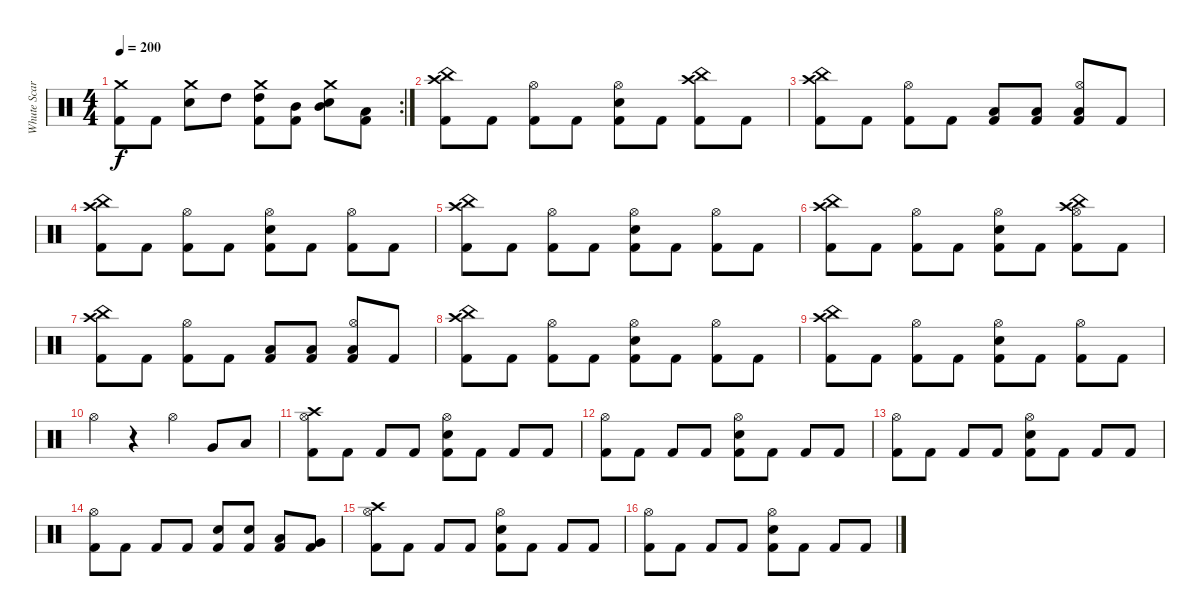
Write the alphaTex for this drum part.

\track ("Whute Scar" "Whute Scar") {instrument percussion}
\staff {score}
\articulation defaults
\rc 2
\ts (4 4)
\tempo 200
\clef neutral
\ks c
("Crash medium (hit)" "Kick (hit) 2").8{dy f} "Kick (hit) 2".8 ("Crash medium (hit)" "Snare (hit) 2").8 "High Tom (hit)".8 ("Crash medium (hit)" "High Tom (hit)" "Kick (hit) 2").8 ("Mid Tom (hit)" "Kick (hit) 2").8 ("Crash medium (hit)" "Mid Tom (hit)" "Snare (hit) 2").8 ("Low Tom (hit)" "Kick (hit) 2").8 |
("Kick (hit) 2" "Crash high (hit)" "China (hit)").8 "Kick (hit) 2".8 ("Kick (hit) 2" "Hi-Hat (open)").8 "Kick (hit) 2".8 ("Kick (hit) 2" "Snare (hit) 2" "Hi-Hat (open)").8 "Kick (hit) 2".8 ("Kick (hit) 2" "Crash high (hit)" "China (hit)").8 "Kick (hit) 2".8 |
("Kick (hit) 2" "China (hit)" "Crash high (hit)").8 "Kick (hit) 2".8 ("Kick (hit) 2" "Hi-Hat (open)").8 "Kick (hit) 2".8 ("Kick (hit) 2" "Low Floor Tom (hit)").8 ("Kick (hit) 2" "Low Floor Tom (hit)").8 ("Kick (hit) 2" "Low Floor Tom (hit)" "Hi-Hat (open)").8 "Kick (hit) 2".8 |
("Kick (hit) 2" "China (hit)" "Crash high (hit)").8 "Kick (hit) 2".8 ("Kick (hit) 2" "Hi-Hat (open)").8 "Kick (hit) 2".8 ("Kick (hit) 2" "Snare (hit) 2" "Hi-Hat (open)").8 "Kick (hit) 2".8 ("Kick (hit) 2" "Hi-Hat (open)").8 "Kick (hit) 2".8 |
("Kick (hit) 2" "Crash high (hit)" "China (hit)").8 "Kick (hit) 2".8 ("Kick (hit) 2" "Hi-Hat (open)").8 "Kick (hit) 2".8 ("Kick (hit) 2" "Snare (hit) 2" "Hi-Hat (open)").8 "Kick (hit) 2".8 ("Kick (hit) 2" "Hi-Hat (open)").8 "Kick (hit) 2".8 |
("Kick (hit) 2" "Crash high (hit)" "China (hit)").8 "Kick (hit) 2".8 ("Kick (hit) 2" "Hi-Hat (open)").8 "Kick (hit) 2".8 ("Kick (hit) 2" "Snare (hit) 2" "Hi-Hat (open)").8 "Kick (hit) 2".8 ("Kick (hit) 2" "Hi-Hat (open)" "Crash high (hit)" "China (hit)").8 "Kick (hit) 2".8 |
("Kick (hit) 2" "China (hit)" "Crash high (hit)").8 "Kick (hit) 2".8 ("Kick (hit) 2" "Hi-Hat (open)").8 "Kick (hit) 2".8 ("Kick (hit) 2" "Low Floor Tom (hit)").8 ("Kick (hit) 2" "Low Floor Tom (hit)").8 ("Kick (hit) 2" "Low Floor Tom (hit)" "Hi-Hat (open)").8 "Kick (hit) 2".8 |
("Kick (hit) 2" "China (hit)" "Crash high (hit)").8 "Kick (hit) 2".8 ("Kick (hit) 2" "Hi-Hat (open)").8 "Kick (hit) 2".8 ("Kick (hit) 2" "Snare (hit) 2" "Hi-Hat (open)").8 "Kick (hit) 2".8 ("Kick (hit) 2" "Hi-Hat (open)").8 "Kick (hit) 2".8 |
("Kick (hit) 2" "Crash high (hit)" "China (hit)").8 "Kick (hit) 2".8 ("Kick (hit) 2" "Hi-Hat (open)").8 "Kick (hit) 2".8 ("Kick (hit) 2" "Snare (hit) 2" "Hi-Hat (open)").8 "Kick (hit) 2".8 ("Kick (hit) 2" "Hi-Hat (open)").8 "Kick (hit) 2".8 |
"Hi-Hat (open)".4 r.4 "Hi-Hat (open)".4 "Very Low Tom (hit)".8 "Low Floor Tom (hit)".8 |
("Crash high (hit)" "Hi-Hat (open)" "Kick (hit) 2").8 "Kick (hit) 2".8 "Kick (hit) 2".8 "Kick (hit) 2".8 ("Snare (hit) 2" "Hi-Hat (open)" "Kick (hit) 2").8 "Kick (hit) 2".8 "Kick (hit) 2".8 "Kick (hit) 2".8 |
("Hi-Hat (open)" "Kick (hit) 2").8 "Kick (hit) 2".8 "Kick (hit) 2".8 "Kick (hit) 2".8 ("Snare (hit) 2" "Hi-Hat (open)" "Kick (hit) 2").8 "Kick (hit) 2".8 "Kick (hit) 2".8 "Kick (hit) 2".8 |
("Hi-Hat (open)" "Kick (hit) 2").8 "Kick (hit) 2".8 "Kick (hit) 2".8 "Kick (hit) 2".8 ("Snare (hit) 2" "Hi-Hat (open)" "Kick (hit) 2").8 "Kick (hit) 2".8 "Kick (hit) 2".8 "Kick (hit) 2".8 |
("Hi-Hat (open)" "Kick (hit) 2").8 "Kick (hit) 2".8 "Kick (hit) 2".8 "Kick (hit) 2".8 ("Snare (hit) 2" "Kick (hit) 2").8 ("Snare (hit) 2" "Kick (hit) 2").8 ("Low Tom (hit)" "Kick (hit) 2").8 ("Very Low Tom (hit)" "Kick (hit) 2").8 |
("Crash high (hit)" "Hi-Hat (open)" "Kick (hit) 2").8 "Kick (hit) 2".8 "Kick (hit) 2".8 "Kick (hit) 2".8 ("Snare (hit) 2" "Hi-Hat (open)" "Kick (hit) 2").8 "Kick (hit) 2".8 "Kick (hit) 2".8 "Kick (hit) 2".8 |
("Hi-Hat (open)" "Kick (hit) 2").8 "Kick (hit) 2".8 "Kick (hit) 2".8 "Kick (hit) 2".8 ("Snare (hit) 2" "Hi-Hat (open)" "Kick (hit) 2").8 "Kick (hit) 2".8 "Kick (hit) 2".8 "Kick (hit) 2".8
